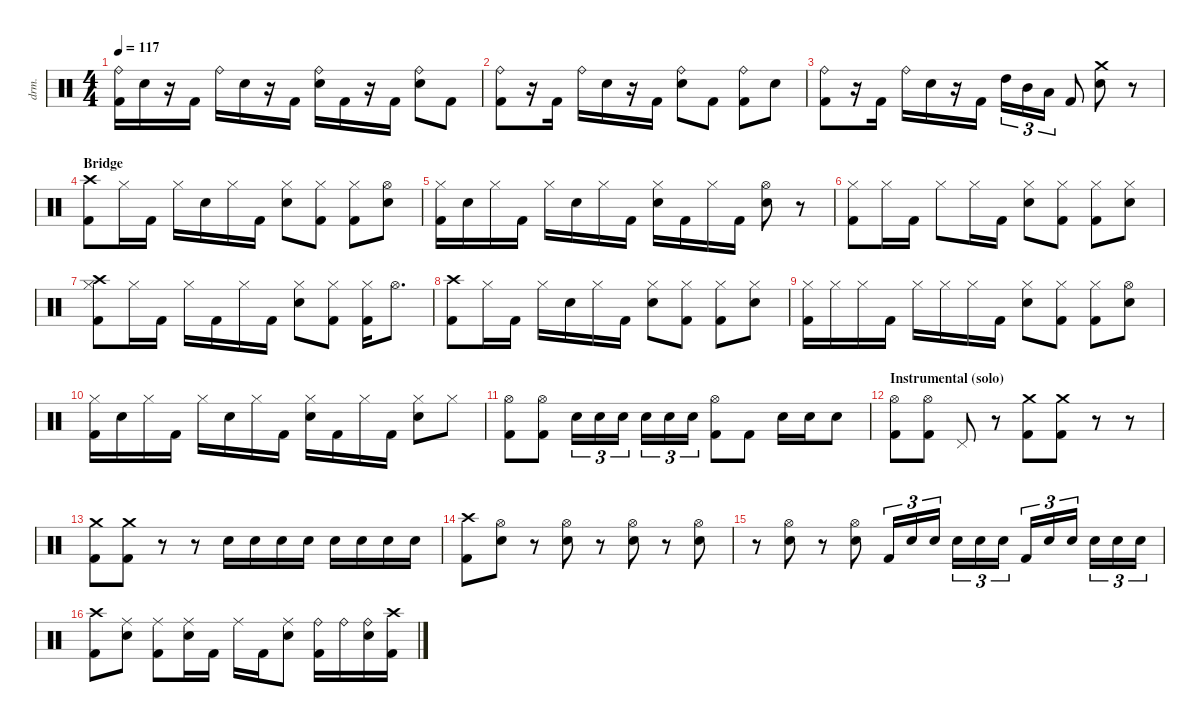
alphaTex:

\defaultSystemsLayout 4
\hideDynamics
\bracketExtendMode nobrackets
\otherSystemsTrackNameOrientation horizontal
\track ("Drums" "drm.") {instrument percussion}
\staff {score}
\articulation defaults
\ts (4 4)
\tempo 117
\clef neutral
\ks c
("Kick (hit) 2" "Ride (bell)").16{dy f} "Snare (hit) 2".16 r.16 "Kick (hit) 2".16 "Ride (bell)".16 "Snare (hit) 2".16 r.16 "Kick (hit) 2".16 ("Ride (bell)" "Snare (hit) 2").16 "Kick (hit) 2".16 r.16 "Kick (hit) 2".16 ("Ride (bell)" "Snare (hit) 2").8 "Kick (hit) 2".8 |
("Kick (hit) 2" "Ride (bell)").8 r.16 "Kick (hit) 2".16 "Ride (bell)".16 "Snare (hit) 2".16 r.16 "Kick (hit) 2".16 ("Ride (bell)" "Snare (hit) 2").8 "Kick (hit) 2".8 ("Kick (hit) 2" "Ride (bell)").8 "Snare (hit) 2".8 |
("Kick (hit) 2" "Ride (bell)").8 r.16 "Kick (hit) 2".16 "Ride (bell)".16 "Snare (hit) 2".16 r.16 "Kick (hit) 2".16 "High Tom (hit)".16{tu (3 2)} "Mid Tom (hit)".16{tu (3 2)} "Low Tom (hit)".16{tu (3 2)} "Kick (hit) 2".8 ("Snare (hit) 2" "Crash medium (hit)").8 r.8 |
\section ("" "Bridge")
("Kick (hit) 2" "Crash high (hit)").8 "Hi-Hat (closed)".16 "Kick (hit) 2".16 "Hi-Hat (closed)".16 "Snare (hit) 2".16 "Hi-Hat (closed)".16 "Kick (hit) 2".16 ("Hi-Hat (closed)" "Snare (hit) 2").8 ("Kick (hit) 2" "Hi-Hat (closed)").8 ("Kick (hit) 2" "Hi-Hat (closed)").8 ("Snare (hit) 2" "Hi-Hat (open)").8 |
("Kick (hit) 2" "Hi-Hat (closed)").16 "Snare (hit) 2".16 "Hi-Hat (closed)".16 "Kick (hit) 2".16 "Hi-Hat (closed)".16 "Snare (hit) 2".16 "Hi-Hat (closed)".16 "Kick (hit) 2".16 ("Hi-Hat (closed)" "Snare (hit) 2").16 "Kick (hit) 2".16 "Hi-Hat (closed)".16 "Kick (hit) 2".16 ("Hi-Hat (open)" "Snare (hit) 2").8 r.8 |
("Kick (hit) 2" "Hi-Hat (closed)").8 "Hi-Hat (closed)".16 "Kick (hit) 2".16 "Hi-Hat (closed)".8 "Hi-Hat (closed)".16 "Kick (hit) 2".16 ("Hi-Hat (closed)" "Snare (hit) 2").8 ("Kick (hit) 2" "Hi-Hat (closed)").8 ("Kick (hit) 2" "Hi-Hat (closed)").8 ("Snare (hit) 2" "Hi-Hat (closed)").8 |
("Kick (hit) 2" "Hi-Hat (closed)" "Crash high (hit)").8 "Hi-Hat (closed)".16 "Kick (hit) 2".16 "Hi-Hat (closed)".16 "Kick (hit) 2".16 "Hi-Hat (closed)".16 "Kick (hit) 2".16 ("Hi-Hat (closed)" "Snare (hit) 2").8 ("Kick (hit) 2" "Hi-Hat (closed)").8 ("Kick (hit) 2" "Hi-Hat (closed)").16 "Hi-Hat (open)".8{d} |
("Kick (hit) 2" "Crash high (hit)").8 "Hi-Hat (closed)".16 "Kick (hit) 2".16 "Hi-Hat (closed)".16 "Snare (hit) 2".16 "Hi-Hat (closed)".16 "Kick (hit) 2".16 ("Hi-Hat (closed)" "Snare (hit) 2").8 ("Kick (hit) 2" "Hi-Hat (closed)").8 ("Kick (hit) 2" "Hi-Hat (closed)").8 ("Snare (hit) 2" "Hi-Hat (closed)").8 |
("Kick (hit) 2" "Hi-Hat (closed)").16 "Hi-Hat (closed)".16 "Hi-Hat (closed)".16 "Kick (hit) 2".16 "Hi-Hat (closed)".16 "Hi-Hat (closed)".16 "Hi-Hat (closed)".16 "Kick (hit) 2".16 ("Hi-Hat (closed)" "Snare (hit) 2").8 ("Kick (hit) 2" "Hi-Hat (closed)").8 ("Kick (hit) 2" "Hi-Hat (closed)").8 ("Snare (hit) 2" "Hi-Hat (open)").8 |
("Kick (hit) 2" "Hi-Hat (closed)").16 "Snare (hit) 2".16 "Hi-Hat (closed)".16 "Kick (hit) 2".16 "Hi-Hat (closed)".16 "Snare (hit) 2".16 "Hi-Hat (closed)".16 "Kick (hit) 2".16 ("Hi-Hat (closed)" "Snare (hit) 2").16 "Kick (hit) 2".16 "Hi-Hat (closed)".16 "Kick (hit) 2".16 ("Hi-Hat (closed)" "Snare (hit) 2").8 "Hi-Hat (closed)".8 |
("Kick (hit) 2" "Hi-Hat (open)").8 ("Kick (hit) 2" "Hi-Hat (open)").8 "Snare (hit) 2".16{tu (3 2)} "Snare (hit) 2".16{tu (3 2)} "Snare (hit) 2".16{tu (3 2)} "Snare (hit) 2".16{tu (3 2)} "Snare (hit) 2".16{tu (3 2)} "Snare (hit) 2".16{tu (3 2)} ("Kick (hit) 2" "Hi-Hat (open)").8 "Kick (hit) 2".8 "Snare (hit) 2".16 "Snare (hit) 2".16 "Snare (hit) 2".8 |
\section ("" "Instrumental (solo)")
("Kick (hit) 2" "Hi-Hat (open)").8 ("Kick (hit) 2" "Hi-Hat (open)").8 "Pedal Hi-Hat (hit)".8 r.8 ("Kick (hit) 2" "Crash medium (hit)").8 ("Kick (hit) 2" "Crash medium (hit)").8 r.8 r.8 |
("Kick (hit) 2" "Crash medium (hit)").8 ("Kick (hit) 2" "Crash medium (hit)").8 r.8 r.8 "Snare (hit) 2".16 "Snare (hit) 2".16 "Snare (hit) 2".16 "Snare (hit) 2".16 "Snare (hit) 2".16 "Snare (hit) 2".16 "Snare (hit) 2".16 "Snare (hit) 2".16 |
("Kick (hit) 2" "Crash high (hit)").8 ("Snare (hit) 2" "Hi-Hat (open)").8 r.8 ("Snare (hit) 2" "Hi-Hat (open)").8 r.8 ("Snare (hit) 2" "Hi-Hat (open)").8 r.8 ("Snare (hit) 2" "Hi-Hat (open)").8 |
r.8 ("Snare (hit) 2" "Hi-Hat (open)").8{dy mf} r.8 ("Snare (hit) 2" "Hi-Hat (open)").8 "Kick (hit) 2".16{tu (3 2)} "Snare (hit) 2".16{tu (3 2)} "Snare (hit) 2".16{tu (3 2)} "Snare (hit) 2".16{tu (3 2)} "Snare (hit) 2".16{tu (3 2)} "Snare (hit) 2".16{tu (3 2)} "Kick (hit) 2".16{tu (3 2)} "Snare (hit) 2".16{tu (3 2)} "Snare (hit) 2".16{tu (3 2)} "Snare (hit) 2".16{tu (3 2)} "Snare (hit) 2".16{tu (3 2)} "Snare (hit) 2".16{tu (3 2)} |
("Kick (hit) 2" "Crash high (hit)").8 ("Snare (hit) 2" "Ride (middle)").8 ("Kick (hit) 2" "Ride (middle)").8 ("Snare (hit) 2" "Ride (middle)").16 "Kick (hit) 2".16 "Ride (middle)".16 "Kick (hit) 2".16 ("Snare (hit) 2" "Ride (middle)").8 ("Kick (hit) 2" "Ride (bell)").16 "Ride (bell)".16 ("Snare (hit) 2" "Ride (bell)").16 ("Kick (hit) 2" "Crash high (hit)").16
